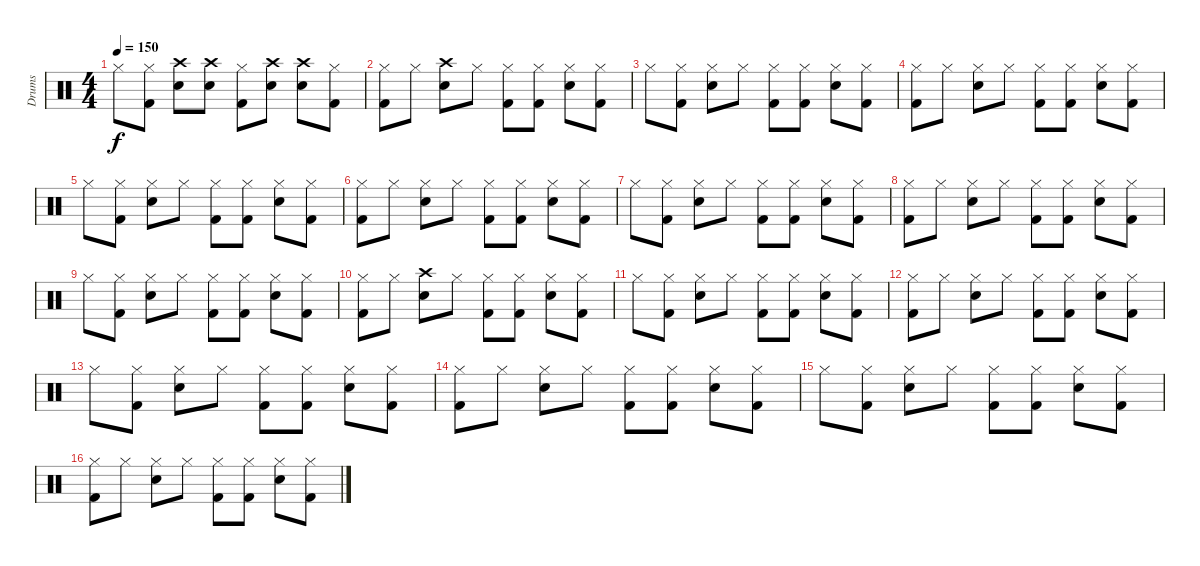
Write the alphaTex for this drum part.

\track ("Drums" "Drums") {instrument percussion}
\staff {score}
\articulation defaults
\ts (4 4)
\tempo 150
\clef neutral
\ks c "Hi-Hat (closed)".8{dy f}
("Kick (hit) 2" "Hi-Hat (closed)").8 ("Crash high (hit)" "Snare (hit) 2").8 ("Snare (hit) 2" "Crash high (hit)").8 ("Kick (hit) 2" "Hi-Hat (closed)").8 ("Crash high (hit)" "Snare (hit) 2").8 ("Crash high (hit)" "Snare (hit) 2").8 ("Kick (hit) 2" "Hi-Hat (closed)").8 |
("Kick (hit) 2" "Hi-Hat (closed)").8 "Hi-Hat (closed)".8 ("Snare (hit) 2" "Crash high (hit)").8 "Hi-Hat (closed)".8 ("Kick (hit) 2" "Hi-Hat (closed)").8 ("Kick (hit) 2" "Hi-Hat (closed)").8 ("Snare (hit) 2" "Hi-Hat (closed)").8 ("Kick (hit) 2" "Hi-Hat (closed)").8 |
"Hi-Hat (closed)".8 ("Kick (hit) 2" "Hi-Hat (closed)").8 ("Snare (hit) 2" "Hi-Hat (closed)").8 "Hi-Hat (closed)".8 ("Kick (hit) 2" "Hi-Hat (closed)").8 ("Kick (hit) 2" "Hi-Hat (closed)").8 ("Snare (hit) 2" "Hi-Hat (closed)").8 ("Kick (hit) 2" "Hi-Hat (closed)").8 |
("Kick (hit) 2" "Hi-Hat (closed)").8 "Hi-Hat (closed)".8 ("Snare (hit) 2" "Hi-Hat (closed)").8 "Hi-Hat (closed)".8 ("Kick (hit) 2" "Hi-Hat (closed)").8 ("Kick (hit) 2" "Hi-Hat (closed)").8 ("Snare (hit) 2" "Hi-Hat (closed)").8 ("Kick (hit) 2" "Hi-Hat (closed)").8 |
"Hi-Hat (closed)".8 ("Kick (hit) 2" "Hi-Hat (closed)").8 ("Snare (hit) 2" "Hi-Hat (closed)").8 "Hi-Hat (closed)".8 ("Kick (hit) 2" "Hi-Hat (closed)").8 ("Kick (hit) 2" "Hi-Hat (closed)").8 ("Snare (hit) 2" "Hi-Hat (closed)").8 ("Kick (hit) 2" "Hi-Hat (closed)").8 |
("Kick (hit) 2" "Hi-Hat (closed)").8 "Hi-Hat (closed)".8 ("Snare (hit) 2" "Hi-Hat (closed)").8 "Hi-Hat (closed)".8 ("Kick (hit) 2" "Hi-Hat (closed)").8 ("Kick (hit) 2" "Hi-Hat (closed)").8 ("Snare (hit) 2" "Hi-Hat (closed)").8 ("Kick (hit) 2" "Hi-Hat (closed)").8 |
"Hi-Hat (closed)".8 ("Kick (hit) 2" "Hi-Hat (closed)").8 ("Snare (hit) 2" "Hi-Hat (closed)").8 "Hi-Hat (closed)".8 ("Kick (hit) 2" "Hi-Hat (closed)").8 ("Kick (hit) 2" "Hi-Hat (closed)").8 ("Snare (hit) 2" "Hi-Hat (closed)").8 ("Kick (hit) 2" "Hi-Hat (closed)").8 |
("Kick (hit) 2" "Hi-Hat (closed)").8 "Hi-Hat (closed)".8 ("Snare (hit) 2" "Hi-Hat (closed)").8 "Hi-Hat (closed)".8 ("Kick (hit) 2" "Hi-Hat (closed)").8 ("Kick (hit) 2" "Hi-Hat (closed)").8 ("Snare (hit) 2" "Hi-Hat (closed)").8 ("Kick (hit) 2" "Hi-Hat (closed)").8 |
"Hi-Hat (closed)".8 ("Kick (hit) 2" "Hi-Hat (closed)").8 ("Snare (hit) 2" "Hi-Hat (closed)").8 "Hi-Hat (closed)".8 ("Kick (hit) 2" "Hi-Hat (closed)").8 ("Kick (hit) 2" "Hi-Hat (closed)").8 ("Snare (hit) 2" "Hi-Hat (closed)").8 ("Kick (hit) 2" "Hi-Hat (closed)").8 |
("Kick (hit) 2" "Hi-Hat (closed)").8 "Hi-Hat (closed)".8 ("Snare (hit) 2" "Crash high (hit)").8 "Hi-Hat (closed)".8 ("Kick (hit) 2" "Hi-Hat (closed)").8 ("Kick (hit) 2" "Hi-Hat (closed)").8 ("Snare (hit) 2" "Hi-Hat (closed)").8 ("Kick (hit) 2" "Hi-Hat (closed)").8 |
"Hi-Hat (closed)".8 ("Kick (hit) 2" "Hi-Hat (closed)").8 ("Snare (hit) 2" "Hi-Hat (closed)").8 "Hi-Hat (closed)".8 ("Kick (hit) 2" "Hi-Hat (closed)").8 ("Kick (hit) 2" "Hi-Hat (closed)").8 ("Snare (hit) 2" "Hi-Hat (closed)").8 ("Kick (hit) 2" "Hi-Hat (closed)").8 |
("Kick (hit) 2" "Hi-Hat (closed)").8 "Hi-Hat (closed)".8 ("Snare (hit) 2" "Hi-Hat (closed)").8 "Hi-Hat (closed)".8 ("Kick (hit) 2" "Hi-Hat (closed)").8 ("Kick (hit) 2" "Hi-Hat (closed)").8 ("Snare (hit) 2" "Hi-Hat (closed)").8 ("Kick (hit) 2" "Hi-Hat (closed)").8 |
"Hi-Hat (closed)".8 ("Kick (hit) 2" "Hi-Hat (closed)").8 ("Snare (hit) 2" "Hi-Hat (closed)").8 "Hi-Hat (closed)".8 ("Kick (hit) 2" "Hi-Hat (closed)").8 ("Kick (hit) 2" "Hi-Hat (closed)").8 ("Snare (hit) 2" "Hi-Hat (closed)").8 ("Kick (hit) 2" "Hi-Hat (closed)").8 |
("Kick (hit) 2" "Hi-Hat (closed)").8 "Hi-Hat (closed)".8 ("Snare (hit) 2" "Hi-Hat (closed)").8 "Hi-Hat (closed)".8 ("Kick (hit) 2" "Hi-Hat (closed)").8 ("Kick (hit) 2" "Hi-Hat (closed)").8 ("Snare (hit) 2" "Hi-Hat (closed)").8 ("Kick (hit) 2" "Hi-Hat (closed)").8 |
"Hi-Hat (closed)".8 ("Kick (hit) 2" "Hi-Hat (closed)").8 ("Snare (hit) 2" "Hi-Hat (closed)").8 "Hi-Hat (closed)".8 ("Kick (hit) 2" "Hi-Hat (closed)").8 ("Kick (hit) 2" "Hi-Hat (closed)").8 ("Snare (hit) 2" "Hi-Hat (closed)").8 ("Kick (hit) 2" "Hi-Hat (closed)").8 |
("Kick (hit) 2" "Hi-Hat (closed)").8 "Hi-Hat (closed)".8 ("Snare (hit) 2" "Hi-Hat (closed)").8 "Hi-Hat (closed)".8 ("Kick (hit) 2" "Hi-Hat (closed)").8 ("Kick (hit) 2" "Hi-Hat (closed)").8 ("Snare (hit) 2" "Hi-Hat (closed)").8 ("Kick (hit) 2" "Hi-Hat (closed)").8
